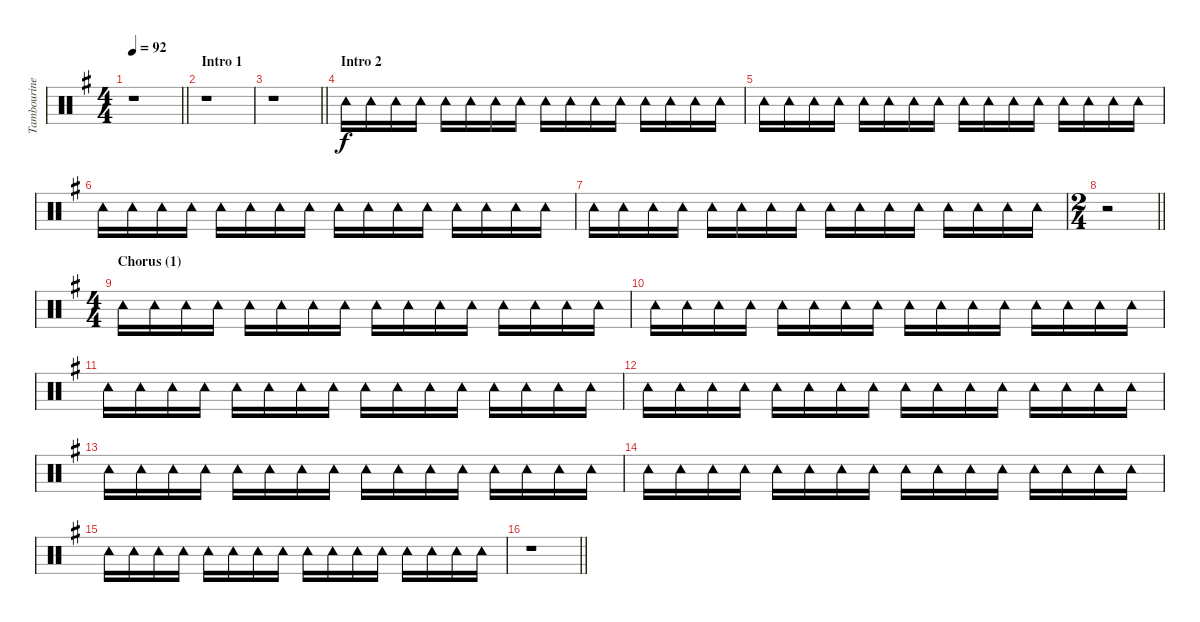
\track ("Tambourine" "Tambourine") {instrument percussion}
\staff {score}
\articulation defaults
\ts (4 4)
\tempo 92
\clef neutral
\barLineRight lightlight
\ks g
r.1{dy f} |
\section ("" "Intro 1")
r.1 |
\barLineRight lightlight
r.1 |
\section ("" "Intro 2")
"Tambourine (hit)".16 "Tambourine (hit)".16 "Tambourine (hit)".16 "Tambourine (hit)".16 "Tambourine (hit)".16 "Tambourine (hit)".16 "Tambourine (hit)".16 "Tambourine (hit)".16 "Tambourine (hit)".16 "Tambourine (hit)".16 "Tambourine (hit)".16 "Tambourine (hit)".16 "Tambourine (hit)".16 "Tambourine (hit)".16 "Tambourine (hit)".16 "Tambourine (hit)".16 |
"Tambourine (hit)".16 "Tambourine (hit)".16 "Tambourine (hit)".16 "Tambourine (hit)".16 "Tambourine (hit)".16 "Tambourine (hit)".16 "Tambourine (hit)".16 "Tambourine (hit)".16 "Tambourine (hit)".16 "Tambourine (hit)".16 "Tambourine (hit)".16 "Tambourine (hit)".16 "Tambourine (hit)".16 "Tambourine (hit)".16 "Tambourine (hit)".16 "Tambourine (hit)".16 |
"Tambourine (hit)".16 "Tambourine (hit)".16 "Tambourine (hit)".16 "Tambourine (hit)".16 "Tambourine (hit)".16 "Tambourine (hit)".16 "Tambourine (hit)".16 "Tambourine (hit)".16 "Tambourine (hit)".16 "Tambourine (hit)".16 "Tambourine (hit)".16 "Tambourine (hit)".16 "Tambourine (hit)".16 "Tambourine (hit)".16 "Tambourine (hit)".16 "Tambourine (hit)".16 |
"Tambourine (hit)".16 "Tambourine (hit)".16 "Tambourine (hit)".16 "Tambourine (hit)".16 "Tambourine (hit)".16 "Tambourine (hit)".16 "Tambourine (hit)".16 "Tambourine (hit)".16 "Tambourine (hit)".16 "Tambourine (hit)".16 "Tambourine (hit)".16 "Tambourine (hit)".16 "Tambourine (hit)".16 "Tambourine (hit)".16 "Tambourine (hit)".16 "Tambourine (hit)".16 |
\ts (2 4)
\barLineRight lightlight
r.2 |
\ts (4 4)
\section ("" "Chorus (1)")
"Tambourine (hit)".16 "Tambourine (hit)".16 "Tambourine (hit)".16 "Tambourine (hit)".16 "Tambourine (hit)".16 "Tambourine (hit)".16 "Tambourine (hit)".16 "Tambourine (hit)".16 "Tambourine (hit)".16 "Tambourine (hit)".16 "Tambourine (hit)".16 "Tambourine (hit)".16 "Tambourine (hit)".16 "Tambourine (hit)".16 "Tambourine (hit)".16 "Tambourine (hit)".16 |
"Tambourine (hit)".16 "Tambourine (hit)".16 "Tambourine (hit)".16 "Tambourine (hit)".16 "Tambourine (hit)".16 "Tambourine (hit)".16 "Tambourine (hit)".16 "Tambourine (hit)".16 "Tambourine (hit)".16 "Tambourine (hit)".16 "Tambourine (hit)".16 "Tambourine (hit)".16 "Tambourine (hit)".16 "Tambourine (hit)".16 "Tambourine (hit)".16 "Tambourine (hit)".16 |
"Tambourine (hit)".16 "Tambourine (hit)".16 "Tambourine (hit)".16 "Tambourine (hit)".16 "Tambourine (hit)".16 "Tambourine (hit)".16 "Tambourine (hit)".16 "Tambourine (hit)".16 "Tambourine (hit)".16 "Tambourine (hit)".16 "Tambourine (hit)".16 "Tambourine (hit)".16 "Tambourine (hit)".16 "Tambourine (hit)".16 "Tambourine (hit)".16 "Tambourine (hit)".16 |
"Tambourine (hit)".16 "Tambourine (hit)".16 "Tambourine (hit)".16 "Tambourine (hit)".16 "Tambourine (hit)".16 "Tambourine (hit)".16 "Tambourine (hit)".16 "Tambourine (hit)".16 "Tambourine (hit)".16 "Tambourine (hit)".16 "Tambourine (hit)".16 "Tambourine (hit)".16 "Tambourine (hit)".16 "Tambourine (hit)".16 "Tambourine (hit)".16 "Tambourine (hit)".16 |
"Tambourine (hit)".16 "Tambourine (hit)".16 "Tambourine (hit)".16 "Tambourine (hit)".16 "Tambourine (hit)".16 "Tambourine (hit)".16 "Tambourine (hit)".16 "Tambourine (hit)".16 "Tambourine (hit)".16 "Tambourine (hit)".16 "Tambourine (hit)".16 "Tambourine (hit)".16 "Tambourine (hit)".16 "Tambourine (hit)".16 "Tambourine (hit)".16 "Tambourine (hit)".16 |
"Tambourine (hit)".16 "Tambourine (hit)".16 "Tambourine (hit)".16 "Tambourine (hit)".16 "Tambourine (hit)".16 "Tambourine (hit)".16 "Tambourine (hit)".16 "Tambourine (hit)".16 "Tambourine (hit)".16 "Tambourine (hit)".16 "Tambourine (hit)".16 "Tambourine (hit)".16 "Tambourine (hit)".16 "Tambourine (hit)".16 "Tambourine (hit)".16 "Tambourine (hit)".16 |
"Tambourine (hit)".16 "Tambourine (hit)".16 "Tambourine (hit)".16 "Tambourine (hit)".16 "Tambourine (hit)".16 "Tambourine (hit)".16 "Tambourine (hit)".16 "Tambourine (hit)".16 "Tambourine (hit)".16 "Tambourine (hit)".16 "Tambourine (hit)".16 "Tambourine (hit)".16 "Tambourine (hit)".16 "Tambourine (hit)".16 "Tambourine (hit)".16 "Tambourine (hit)".16 |
\barLineRight lightlight
r.1
